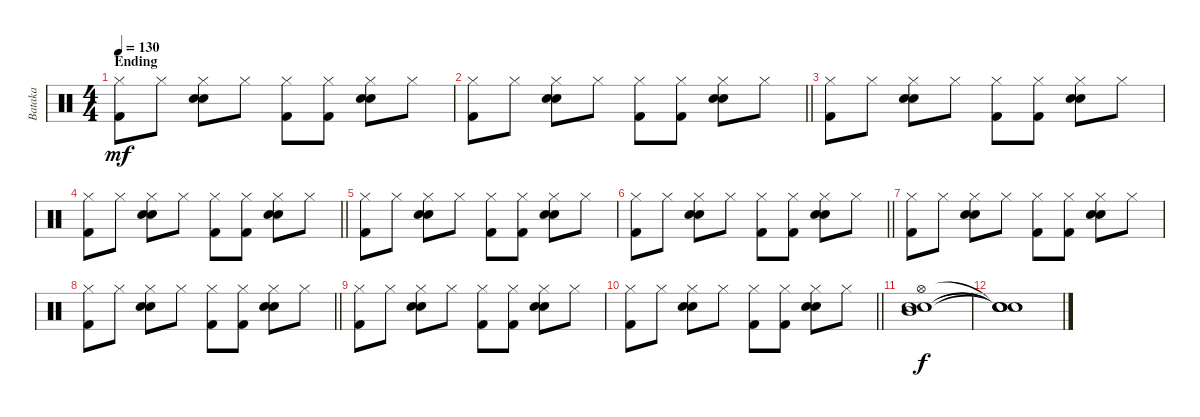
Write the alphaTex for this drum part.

\track ("Bataka" "Bataka") {instrument percussion}
\staff
\articulation defaults
\ts (4 4)
\section ("" "Ending")
\tempo 130
\clef neutral
\ks c
("Hi-Hat (closed)" "Kick (hit) 2").8{dy mf} "Hi-Hat (closed)".8 ("Hi-Hat (closed)" "Electric Snare (hit)" "Snare (hit) 2").8 "Hi-Hat (closed)".8 ("Hi-Hat (closed)" "Kick (hit) 2").8 ("Hi-Hat (closed)" "Kick (hit) 2").8 ("Hi-Hat (closed)" "Electric Snare (hit)" "Snare (hit) 2").8 "Hi-Hat (closed)".8 |
\barLineRight lightlight
("Hi-Hat (closed)" "Kick (hit) 2").8 "Hi-Hat (closed)".8 ("Hi-Hat (closed)" "Electric Snare (hit)" "Snare (hit) 2").8 "Hi-Hat (closed)".8 ("Hi-Hat (closed)" "Kick (hit) 2").8 ("Hi-Hat (closed)" "Kick (hit) 2").8 ("Hi-Hat (closed)" "Electric Snare (hit)" "Snare (hit) 2").8 "Hi-Hat (closed)".8 |
("Hi-Hat (closed)" "Kick (hit) 2").8 "Hi-Hat (closed)".8 ("Hi-Hat (closed)" "Electric Snare (hit)" "Snare (hit) 2").8 "Hi-Hat (closed)".8 ("Hi-Hat (closed)" "Kick (hit) 2").8 ("Hi-Hat (closed)" "Kick (hit) 2").8 ("Hi-Hat (closed)" "Electric Snare (hit)" "Snare (hit) 2").8 "Hi-Hat (closed)".8 |
\barLineRight lightlight
("Hi-Hat (closed)" "Kick (hit) 2").8 "Hi-Hat (closed)".8 ("Hi-Hat (closed)" "Electric Snare (hit)" "Snare (hit) 2").8 "Hi-Hat (closed)".8 ("Hi-Hat (closed)" "Kick (hit) 2").8 ("Hi-Hat (closed)" "Kick (hit) 2").8 ("Hi-Hat (closed)" "Electric Snare (hit)" "Snare (hit) 2").8 "Hi-Hat (closed)".8 |
("Hi-Hat (closed)" "Kick (hit) 2").8 "Hi-Hat (closed)".8 ("Hi-Hat (closed)" "Electric Snare (hit)" "Snare (hit) 2").8 "Hi-Hat (closed)".8 ("Hi-Hat (closed)" "Kick (hit) 2").8 ("Hi-Hat (closed)" "Kick (hit) 2").8 ("Hi-Hat (closed)" "Electric Snare (hit)" "Snare (hit) 2").8 "Hi-Hat (closed)".8 |
\barLineRight lightlight
("Hi-Hat (closed)" "Kick (hit) 2").8 "Hi-Hat (closed)".8 ("Hi-Hat (closed)" "Electric Snare (hit)" "Snare (hit) 2").8 "Hi-Hat (closed)".8 ("Hi-Hat (closed)" "Kick (hit) 2").8 ("Hi-Hat (closed)" "Kick (hit) 2").8 ("Hi-Hat (closed)" "Electric Snare (hit)" "Snare (hit) 2").8 "Hi-Hat (closed)".8 |
("Hi-Hat (closed)" "Kick (hit) 2").8 "Hi-Hat (closed)".8 ("Hi-Hat (closed)" "Electric Snare (hit)" "Snare (hit) 2").8 "Hi-Hat (closed)".8 ("Hi-Hat (closed)" "Kick (hit) 2").8 ("Hi-Hat (closed)" "Kick (hit) 2").8 ("Hi-Hat (closed)" "Electric Snare (hit)" "Snare (hit) 2").8 "Hi-Hat (closed)".8 |
\barLineRight lightlight
("Hi-Hat (closed)" "Kick (hit) 2").8 "Hi-Hat (closed)".8 ("Hi-Hat (closed)" "Electric Snare (hit)" "Snare (hit) 2").8 "Hi-Hat (closed)".8 ("Hi-Hat (closed)" "Kick (hit) 2").8 ("Hi-Hat (closed)" "Kick (hit) 2").8 ("Hi-Hat (closed)" "Electric Snare (hit)" "Snare (hit) 2").8 "Hi-Hat (closed)".8 |
("Hi-Hat (closed)" "Kick (hit) 2").8 "Hi-Hat (closed)".8 ("Hi-Hat (closed)" "Electric Snare (hit)" "Snare (hit) 2").8 "Hi-Hat (closed)".8 ("Hi-Hat (closed)" "Kick (hit) 2").8 ("Hi-Hat (closed)" "Kick (hit) 2").8 ("Hi-Hat (closed)" "Electric Snare (hit)" "Snare (hit) 2").8 "Hi-Hat (closed)".8 |
\barLineRight lightlight
("Hi-Hat (closed)" "Kick (hit) 2").8 "Hi-Hat (closed)".8 ("Hi-Hat (closed)" "Electric Snare (hit)" "Snare (hit) 2").8 "Hi-Hat (closed)".8 ("Hi-Hat (closed)" "Kick (hit) 2").8 ("Hi-Hat (closed)" "Kick (hit) 2").8 ("Hi-Hat (closed)" "Electric Snare (hit)" "Snare (hit) 2").8 "Hi-Hat (closed)".8 |
("Snare (hit) 2" "Hi-Hat (open)" "Electric Snare (hit)" "Mid Tom (hit)").1{dy f} |
("Snare (hit)"{t} "Snare (hit)"{t} "Snare (hit)"{t} "Snare (hit)"{t}).1
